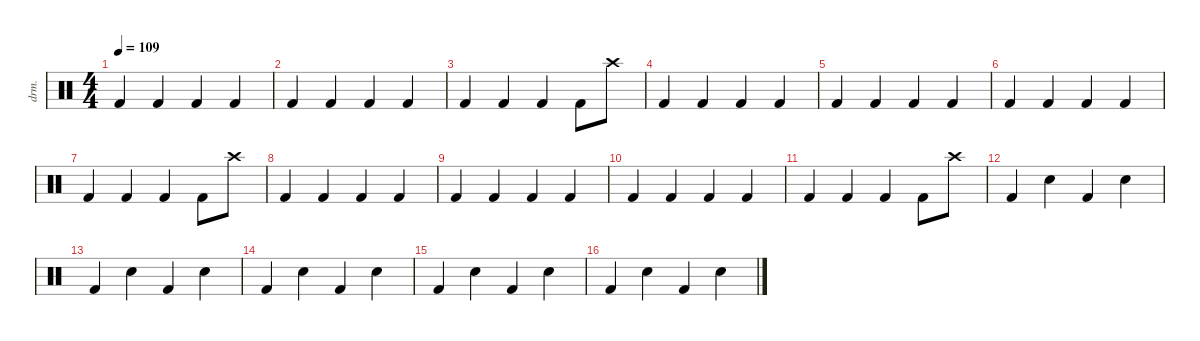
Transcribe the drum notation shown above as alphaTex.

\defaultSystemsLayout 4
\hideDynamics
\bracketExtendMode nobrackets
\otherSystemsTrackNameOrientation horizontal
\track ("Drums" "drm.") {instrument percussion}
\staff {score}
\articulation defaults
\ts (4 4)
\tempo 109
\clef neutral
\ks c "Kick (hit) 2".4{dy f} "Kick (hit) 2".4 "Kick (hit) 2".4 "Kick (hit) 2".4
|
"Kick (hit) 2".4 "Kick (hit) 2".4 "Kick (hit) 2".4 "Kick (hit) 2".4 |
"Kick (hit) 2".4 "Kick (hit) 2".4 "Kick (hit) 2".4 "Kick (hit) 2".8 "Crash high (hit)".8 |
"Kick (hit) 2".4 "Kick (hit) 2".4 "Kick (hit) 2".4 "Kick (hit) 2".4 |
"Kick (hit) 2".4 "Kick (hit) 2".4 "Kick (hit) 2".4 "Kick (hit) 2".4 |
"Kick (hit) 2".4 "Kick (hit) 2".4 "Kick (hit) 2".4 "Kick (hit) 2".4 |
"Kick (hit) 2".4 "Kick (hit) 2".4 "Kick (hit) 2".4 "Kick (hit) 2".8 "Crash high (hit)".8 |
"Kick (hit) 2".4 "Kick (hit) 2".4 "Kick (hit) 2".4 "Kick (hit) 2".4 |
"Kick (hit) 2".4 "Kick (hit) 2".4 "Kick (hit) 2".4 "Kick (hit) 2".4 |
"Kick (hit) 2".4 "Kick (hit) 2".4 "Kick (hit) 2".4 "Kick (hit) 2".4 |
"Kick (hit) 2".4 "Kick (hit) 2".4 "Kick (hit) 2".4 "Kick (hit) 2".8 "Crash high (hit)".8 |
"Kick (hit) 2".4 "Snare (hit) 2".4 "Kick (hit) 2".4 "Snare (hit) 2".4 |
"Kick (hit) 2".4 "Snare (hit) 2".4 "Kick (hit) 2".4 "Snare (hit) 2".4 |
"Kick (hit) 2".4 "Snare (hit) 2".4 "Kick (hit) 2".4 "Snare (hit) 2".4 |
"Kick (hit) 2".4 "Snare (hit) 2".4 "Kick (hit) 2".4 "Snare (hit) 2".4 |
"Kick (hit) 2".4 "Snare (hit) 2".4 "Kick (hit) 2".4 "Snare (hit) 2".4
